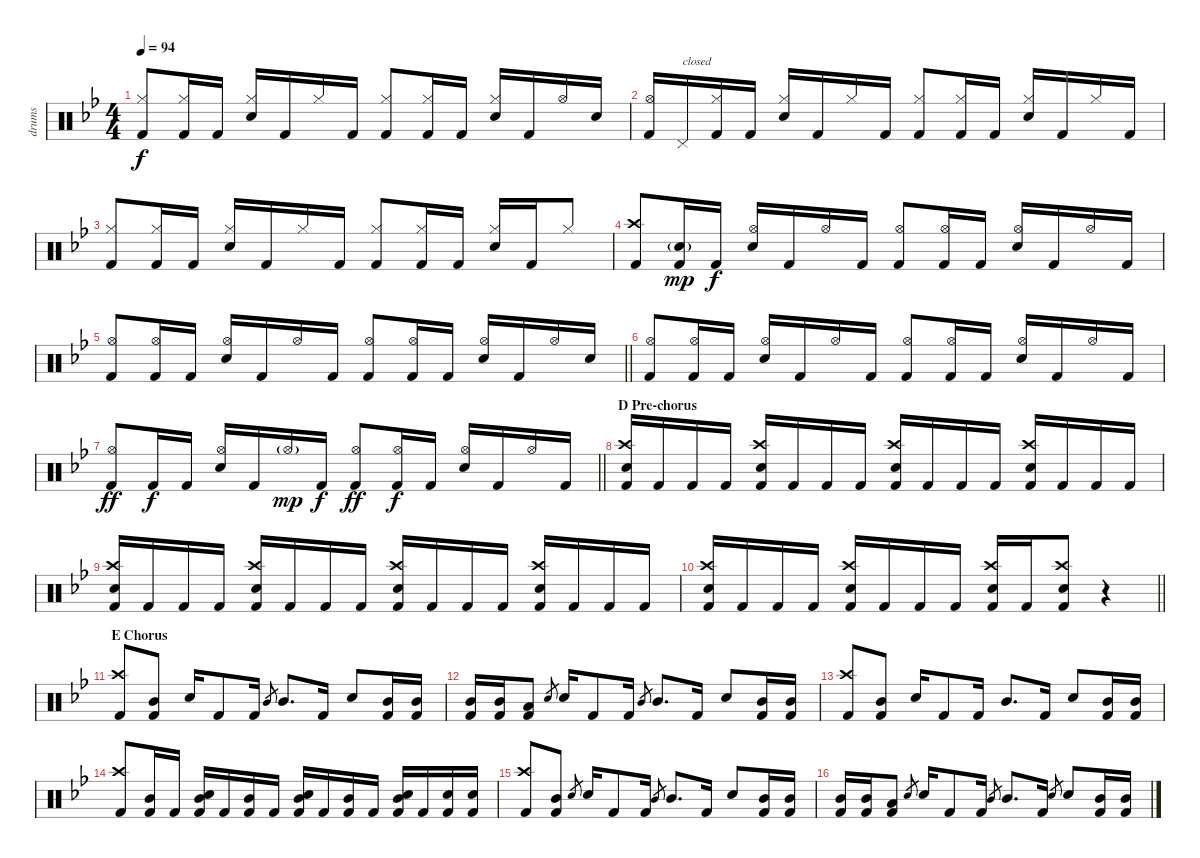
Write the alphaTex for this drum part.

\track ("drums" "drums") {instrument percussion}
\staff {score}
\articulation defaults
\ts (4 4)
\tempo 94
\clef neutral
\ks gminor
("Hi-Hat (closed)" "Kick (hit) 2").8{dy f beam Up} ("Hi-Hat (closed)" "Kick (hit) 2").16{beam Up} "Kick (hit) 2".16{beam Up} ("Snare (hit) 2" "Hi-Hat (closed)").16{beam Up} "Kick (hit) 2".16{beam Up} "Hi-Hat (closed)".16{beam Up} "Kick (hit) 2".16{beam Up} ("Hi-Hat (closed)" "Kick (hit) 2").8{beam Up} ("Hi-Hat (closed)" "Kick (hit) 2").16{beam Up} "Kick (hit) 2".16{beam Up} ("Snare (hit) 2" "Hi-Hat (closed)").16{beam Up} "Kick (hit) 2".16{beam Up} "Hi-Hat (open)".16{beam Up} "Snare (hit) 2".16{beam Up} |
("Hi-Hat (open)" "Kick (hit) 2").16{beam Up} "Pedal Hi-Hat (hit)".16{txt "closed" beam Up} ("Hi-Hat (closed)" "Kick (hit) 2").16{beam Up} "Kick (hit) 2".16{beam Up} ("Snare (hit) 2" "Hi-Hat (closed)").16{beam Up} "Kick (hit) 2".16{beam Up} "Hi-Hat (closed)".16{beam Up} "Kick (hit) 2".16{beam Up} ("Hi-Hat (closed)" "Kick (hit) 2").8{beam Up} ("Hi-Hat (closed)" "Kick (hit) 2").16{beam Up} "Kick (hit) 2".16{beam Up} ("Snare (hit) 2" "Hi-Hat (closed)").16{beam Up} "Kick (hit) 2".16{beam Up} "Hi-Hat (closed)".16{beam Up} "Kick (hit) 2".16{beam Up} |
("Hi-Hat (closed)" "Kick (hit) 2").8{beam Up} ("Hi-Hat (closed)" "Kick (hit) 2").16{beam Up} "Kick (hit) 2".16{beam Up} ("Snare (hit) 2" "Hi-Hat (closed)").16{beam Up} "Kick (hit) 2".16{beam Up} "Hi-Hat (closed)".16{beam Up} "Kick (hit) 2".16{beam Up} ("Hi-Hat (closed)" "Kick (hit) 2").8{beam Up} ("Hi-Hat (closed)" "Kick (hit) 2").16{beam Up} "Kick (hit) 2".16{beam Up} ("Snare (hit) 2" "Hi-Hat (closed)").16{beam Up} "Kick (hit) 2".16{beam Up} "Hi-Hat (closed)".8{beam Up} |
("Crash high (hit)" "Kick (hit) 2").8{beam Up} ("Snare (hit) 2"{g} "Kick (hit) 2").16{dy mp beam Up} "Kick (hit) 2".16{dy f beam Up} ("Snare (hit) 2" "Hi-Hat (open)").16{beam Up} "Kick (hit) 2".16{beam Up} "Hi-Hat (open)".16{beam Up} "Kick (hit) 2".16{beam Up} ("Hi-Hat (open)" "Kick (hit) 2").8{beam Up} ("Hi-Hat (open)" "Kick (hit) 2").16{beam Up} "Kick (hit) 2".16{beam Up} ("Snare (hit) 2" "Hi-Hat (open)").16{beam Up} "Kick (hit) 2".16{beam Up} "Hi-Hat (open)".16{beam Up} "Kick (hit) 2".16{beam Up} |
\barLineRight lightlight
("Hi-Hat (open)" "Kick (hit) 2").8{beam Up} ("Hi-Hat (open)" "Kick (hit) 2").16{beam Up} "Kick (hit) 2".16{beam Up} ("Snare (hit) 2" "Hi-Hat (open)").16{beam Up} "Kick (hit) 2".16{beam Up} "Hi-Hat (open)".16{beam Up} "Kick (hit) 2".16{beam Up} ("Hi-Hat (open)" "Kick (hit) 2").8{beam Up} ("Hi-Hat (open)" "Kick (hit) 2").16{beam Up} "Kick (hit) 2".16{beam Up} ("Snare (hit) 2" "Hi-Hat (open)").16{beam Up} "Kick (hit) 2".16{beam Up} "Hi-Hat (open)".16{beam Up} "Snare (hit) 2".16{beam Up} |
("Hi-Hat (open)" "Kick (hit) 2").8{beam Up} ("Hi-Hat (open)" "Kick (hit) 2").16{beam Up} "Kick (hit) 2".16{beam Up} ("Snare (hit) 2" "Hi-Hat (open)").16{beam Up} "Kick (hit) 2".16{beam Up} "Hi-Hat (open)".16{beam Up} "Kick (hit) 2".16{beam Up} ("Hi-Hat (open)" "Kick (hit) 2").8{beam Up} ("Hi-Hat (open)" "Kick (hit) 2").16{beam Up} "Kick (hit) 2".16{beam Up} ("Snare (hit) 2" "Hi-Hat (open)").16{beam Up} "Kick (hit) 2".16{beam Up} "Hi-Hat (open)".16{beam Up} "Kick (hit) 2".16{beam Up} |
\barLineRight lightlight
("Hi-Hat (open)" "Kick (hit) 2").8{dy ff beam Up} "Kick (hit) 2".16{dy f beam Up} "Kick (hit) 2".16{beam Up} ("Snare (hit) 2" "Hi-Hat (open)").16{beam Up} "Kick (hit) 2".16{beam Up} "Hi-Hat (open)"{g}.16{dy mp beam Up} "Kick (hit) 2".16{dy f beam Up} ("Hi-Hat (open)" "Kick (hit) 2").8{dy ff beam Up} ("Hi-Hat (open)" "Kick (hit) 2").16{dy f beam Up} "Kick (hit) 2".16{beam Up} ("Snare (hit) 2" "Hi-Hat (open)").16{beam Up} "Kick (hit) 2".16{beam Up} "Hi-Hat (open)".16{beam Up} "Kick (hit) 2".16{beam Up} |
\section ("" "D Pre-chorus")
("Crash high (hit)" "Snare (hit) 2" "Kick (hit) 2").16{beam Up} "Kick (hit) 2".16{beam Up} "Kick (hit) 2".16{beam Up} "Kick (hit) 2".16{beam Up} ("Crash high (hit)" "Snare (hit) 2" "Kick (hit) 2").16{beam Up} "Kick (hit) 2".16{beam Up} "Kick (hit) 2".16{beam Up} "Kick (hit) 2".16{beam Up} ("Crash high (hit)" "Snare (hit) 2" "Kick (hit) 2").16{beam Up} "Kick (hit) 2".16{beam Up} "Kick (hit) 2".16{beam Up} "Kick (hit) 2".16{beam Up} ("Crash high (hit)" "Snare (hit) 2" "Kick (hit) 2").16{beam Up} "Kick (hit) 2".16{beam Up} "Kick (hit) 2".16{beam Up} "Kick (hit) 2".16{beam Up} |
("Crash high (hit)" "Snare (hit) 2" "Kick (hit) 2").16{beam Up} "Kick (hit) 2".16{beam Up} "Kick (hit) 2".16{beam Up} "Kick (hit) 2".16{beam Up} ("Crash high (hit)" "Snare (hit) 2" "Kick (hit) 2").16{beam Up} "Kick (hit) 2".16{beam Up} "Kick (hit) 2".16{beam Up} "Kick (hit) 2".16{beam Up} ("Crash high (hit)" "Snare (hit) 2" "Kick (hit) 2").16{beam Up} "Kick (hit) 2".16{beam Up} "Kick (hit) 2".16{beam Up} "Kick (hit) 2".16{beam Up} ("Crash high (hit)" "Snare (hit) 2" "Kick (hit) 2").16{beam Up} "Kick (hit) 2".16{beam Up} "Kick (hit) 2".16{beam Up} "Kick (hit) 2".16{beam Up} |
\barLineRight lightlight
("Crash high (hit)" "Snare (hit) 2" "Kick (hit) 2").16{beam Up} "Kick (hit) 2".16{beam Up} "Kick (hit) 2".16{beam Up} "Kick (hit) 2".16{beam Up} ("Crash high (hit)" "Snare (hit) 2" "Kick (hit) 2").16{beam Up} "Kick (hit) 2".16{beam Up} "Kick (hit) 2".16{beam Up} "Kick (hit) 2".16{beam Up} ("Crash high (hit)" "Snare (hit) 2" "Kick (hit) 2").16{beam Up} "Kick (hit) 2".16{beam Up} ("Crash high (hit)" "Snare (hit) 2" "Kick (hit) 2").8{beam Up} r.4 |
\section ("" "E Chorus")
("Crash high (hit)" "Kick (hit) 2").8{beam Up} ("Mid Tom (hit)" "Kick (hit) 2").8{beam Up} "Snare (hit) 2".16 "Kick (hit) 2".8 "Kick (hit) 2".16 "Mid Tom (hit)".8{gr} "Mid Tom (hit)".8{d beam Up} "Kick (hit) 2".16{beam Up} "Snare (hit) 2".8{beam Up} ("Mid Tom (hit)" "Kick (hit) 2").16{beam Up} ("Mid Tom (hit)" "Kick (hit) 2").16{beam Up} |
("Mid Tom (hit)" "Kick (hit) 2").16{beam Up} ("Mid Tom (hit)" "Kick (hit) 2").16{beam Up} ("Low Tom (hit)" "Kick (hit) 2").8{beam Up} "Snare (hit) 2".8{gr} "Snare (hit) 2".16 "Kick (hit) 2".8 "Kick (hit) 2".16 "Mid Tom (hit)".8{gr} "Mid Tom (hit)".8{d beam Up} "Kick (hit) 2".16{beam Up} "Snare (hit) 2".8{beam Up} ("Mid Tom (hit)" "Kick (hit) 2").16{beam Up} ("Mid Tom (hit)" "Kick (hit) 2").16{beam Up} |
("Crash high (hit)" "Kick (hit) 2").8{beam Up} ("Mid Tom (hit)" "Kick (hit) 2").8{beam Up} "Snare (hit) 2".16 "Kick (hit) 2".8 "Kick (hit) 2".16 "Mid Tom (hit)".8{d beam Up} "Kick (hit) 2".16{beam Up} "Snare (hit) 2".8{beam Up} ("Mid Tom (hit)" "Kick (hit) 2").16{beam Up} ("Mid Tom (hit)" "Kick (hit) 2").16{beam Up} |
("Crash high (hit)" "Kick (hit) 2").8{beam Up} ("Mid Tom (hit)" "Kick (hit) 2").16{beam Up} "Kick (hit) 2".16{beam Up} ("Mid Tom (hit)" "Snare (hit) 2" "Kick (hit) 2").16{beam Up} "Kick (hit) 2".16{beam Up} ("Mid Tom (hit)" "Kick (hit) 2").16{beam Up} "Kick (hit) 2".16{beam Up} ("Mid Tom (hit)" "Snare (hit) 2" "Kick (hit) 2").16{beam Up} "Kick (hit) 2".16{beam Up} ("Mid Tom (hit)" "Kick (hit) 2").16{beam Up} "Kick (hit) 2".16{beam Up} ("Mid Tom (hit)" "Snare (hit) 2" "Kick (hit) 2").16{beam Up} "Kick (hit) 2".16{beam Up} ("Snare (hit) 2" "Kick (hit) 2").16{beam Up} ("Snare (hit) 2" "Kick (hit) 2").16{beam Up} |
("Crash high (hit)" "Kick (hit) 2").8{beam Up} ("Mid Tom (hit)" "Kick (hit) 2").8{beam Up} "Snare (hit) 2".8{gr} "Snare (hit) 2".16 "Kick (hit) 2".8 "Kick (hit) 2".16 "Mid Tom (hit)".8{gr} "Mid Tom (hit)".8{d beam Up} "Kick (hit) 2".16{beam Up} "Snare (hit) 2".8{beam Up} ("Mid Tom (hit)" "Kick (hit) 2").16{beam Up} ("Mid Tom (hit)" "Kick (hit) 2").16{beam Up} |
("Mid Tom (hit)" "Kick (hit) 2").16{beam Up} ("Mid Tom (hit)" "Kick (hit) 2").16{beam Up} ("Low Tom (hit)" "Kick (hit) 2").8{beam Up} "Snare (hit) 2".8{gr} "Snare (hit) 2".16 "Kick (hit) 2".8 "Kick (hit) 2".16 "Mid Tom (hit)".8{gr} "Mid Tom (hit)".8{d beam Up} "Kick (hit) 2".16{beam Up} "Snare (hit) 2".8{gr} "Snare (hit) 2".8{beam Up} ("Mid Tom (hit)" "Kick (hit) 2").16{beam Up} ("Mid Tom (hit)" "Kick (hit) 2").16{beam Up}
